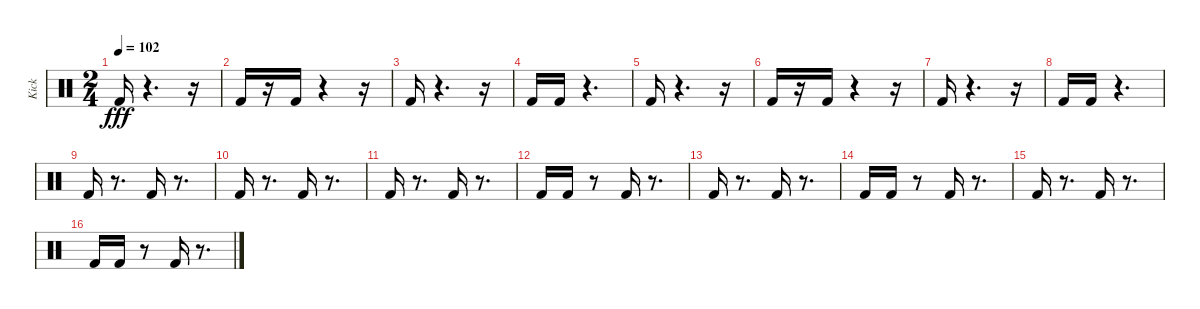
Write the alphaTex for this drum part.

\track ("Kick" "Kick") {instrument percussion}
\staff {score}
\articulation defaults
\ts (2 4)
\tempo 102
\clef neutral
\ks c "Kick (hit) 2".16{dy fff}
r.4{d} r.16 |
"Kick (hit) 2".16 r.16 "Kick (hit) 2".16 r.4 r.16 |
"Kick (hit) 2".16 r.4{d} r.16 |
"Kick (hit) 2".16 "Kick (hit) 2".16 r.4{d} |
"Kick (hit) 2".16 r.4{d} r.16 |
"Kick (hit) 2".16 r.16 "Kick (hit) 2".16 r.4 r.16 |
"Kick (hit) 2".16 r.4{d} r.16 |
"Kick (hit) 2".16 "Kick (hit) 2".16 r.4{d} |
"Kick (hit) 2".16 r.8{d} "Kick (hit) 2".16 r.8{d} |
"Kick (hit) 2".16 r.8{d} "Kick (hit) 2".16 r.8{d} |
"Kick (hit) 2".16 r.8{d} "Kick (hit) 2".16 r.8{d} |
"Kick (hit) 2".16 "Kick (hit) 2".16 r.8 "Kick (hit) 2".16 r.8{d} |
"Kick (hit) 2".16 r.8{d} "Kick (hit) 2".16 r.8{d} |
"Kick (hit) 2".16 "Kick (hit) 2".16 r.8 "Kick (hit) 2".16 r.8{d} |
"Kick (hit) 2".16 r.8{d} "Kick (hit) 2".16 r.8{d} |
"Kick (hit) 2".16 "Kick (hit) 2".16 r.8 "Kick (hit) 2".16 r.8{d}
